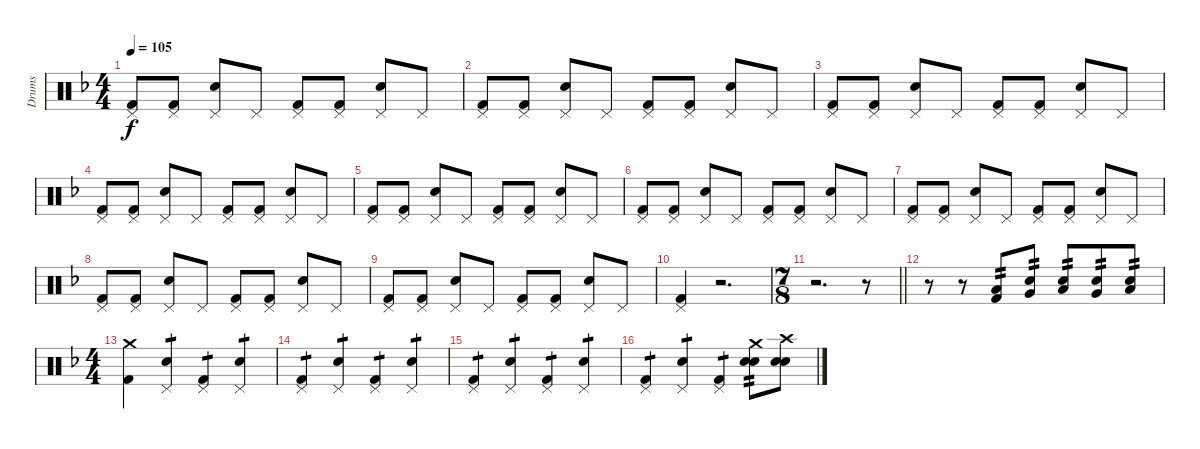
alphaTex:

\track ("Drums" "Drums") {instrument percussion}
\staff {score}
\articulation defaults
\ts (4 4)
\tempo 105
\clef neutral
\ks f
("Kick (hit) 2" "Pedal Hi-Hat (hit)").8{dy f} ("Kick (hit) 2" "Pedal Hi-Hat (hit)").8 ("Snare (hit) 2" "Pedal Hi-Hat (hit)").8 "Pedal Hi-Hat (hit)".8 ("Kick (hit) 2" "Pedal Hi-Hat (hit)").8 ("Kick (hit) 2" "Pedal Hi-Hat (hit)").8 ("Snare (hit) 2" "Pedal Hi-Hat (hit)").8 "Pedal Hi-Hat (hit)".8 |
("Kick (hit) 2" "Pedal Hi-Hat (hit)").8 ("Kick (hit) 2" "Pedal Hi-Hat (hit)").8 ("Snare (hit) 2" "Pedal Hi-Hat (hit)").8 "Pedal Hi-Hat (hit)".8 ("Kick (hit) 2" "Pedal Hi-Hat (hit)").8 ("Kick (hit) 2" "Pedal Hi-Hat (hit)").8 ("Snare (hit) 2" "Pedal Hi-Hat (hit)").8 "Pedal Hi-Hat (hit)".8 |
("Kick (hit) 2" "Pedal Hi-Hat (hit)").8 ("Kick (hit) 2" "Pedal Hi-Hat (hit)").8 ("Snare (hit) 2" "Pedal Hi-Hat (hit)").8 "Pedal Hi-Hat (hit)".8 ("Kick (hit) 2" "Pedal Hi-Hat (hit)").8 ("Kick (hit) 2" "Pedal Hi-Hat (hit)").8 ("Snare (hit) 2" "Pedal Hi-Hat (hit)").8 "Pedal Hi-Hat (hit)".8 |
("Kick (hit) 2" "Pedal Hi-Hat (hit)").8 ("Kick (hit) 2" "Pedal Hi-Hat (hit)").8 ("Snare (hit) 2" "Pedal Hi-Hat (hit)").8 "Pedal Hi-Hat (hit)".8 ("Kick (hit) 2" "Pedal Hi-Hat (hit)").8 ("Kick (hit) 2" "Pedal Hi-Hat (hit)").8 ("Snare (hit) 2" "Pedal Hi-Hat (hit)").8 "Pedal Hi-Hat (hit)".8 |
("Kick (hit) 2" "Pedal Hi-Hat (hit)").8 ("Kick (hit) 2" "Pedal Hi-Hat (hit)").8 ("Snare (hit) 2" "Pedal Hi-Hat (hit)").8 "Pedal Hi-Hat (hit)".8 ("Kick (hit) 2" "Pedal Hi-Hat (hit)").8 ("Kick (hit) 2" "Pedal Hi-Hat (hit)").8 ("Snare (hit) 2" "Pedal Hi-Hat (hit)").8 "Pedal Hi-Hat (hit)".8 |
("Kick (hit) 2" "Pedal Hi-Hat (hit)").8 ("Kick (hit) 2" "Pedal Hi-Hat (hit)").8 ("Snare (hit) 2" "Pedal Hi-Hat (hit)").8 "Pedal Hi-Hat (hit)".8 ("Kick (hit) 2" "Pedal Hi-Hat (hit)").8 ("Kick (hit) 2" "Pedal Hi-Hat (hit)").8 ("Snare (hit) 2" "Pedal Hi-Hat (hit)").8 "Pedal Hi-Hat (hit)".8 |
("Kick (hit) 2" "Pedal Hi-Hat (hit)").8 ("Kick (hit) 2" "Pedal Hi-Hat (hit)").8 ("Snare (hit) 2" "Pedal Hi-Hat (hit)").8 "Pedal Hi-Hat (hit)".8 ("Kick (hit) 2" "Pedal Hi-Hat (hit)").8 ("Kick (hit) 2" "Pedal Hi-Hat (hit)").8 ("Snare (hit) 2" "Pedal Hi-Hat (hit)").8 "Pedal Hi-Hat (hit)".8 |
("Kick (hit) 2" "Pedal Hi-Hat (hit)").8 ("Kick (hit) 2" "Pedal Hi-Hat (hit)").8 ("Snare (hit) 2" "Pedal Hi-Hat (hit)").8 "Pedal Hi-Hat (hit)".8 ("Kick (hit) 2" "Pedal Hi-Hat (hit)").8 ("Kick (hit) 2" "Pedal Hi-Hat (hit)").8 ("Snare (hit) 2" "Pedal Hi-Hat (hit)").8 "Pedal Hi-Hat (hit)".8 |
("Kick (hit) 2" "Pedal Hi-Hat (hit)").8 ("Kick (hit) 2" "Pedal Hi-Hat (hit)").8 ("Snare (hit) 2" "Pedal Hi-Hat (hit)").8 "Pedal Hi-Hat (hit)".8 ("Kick (hit) 2" "Pedal Hi-Hat (hit)").8 ("Kick (hit) 2" "Pedal Hi-Hat (hit)").8 ("Snare (hit) 2" "Pedal Hi-Hat (hit)").8 "Pedal Hi-Hat (hit)".8 |
("Kick (hit) 2" "Pedal Hi-Hat (hit)").4 r.2{d} |
\ts (7 8)
\barLineRight lightlight
r.2{d} r.8 |
r.8 r.8 ("Kick (hit) 2" "Low Tom (hit)").8{tp 2} ("Snare (hit) 2" "Very Low Tom (hit)").8{tp 2} ("Snare (hit) 2" "Low Tom (hit)").8{tp 2} ("Snare (hit) 2" "Very Low Tom (hit)").8{tp 2} ("Snare (hit) 2" "Low Floor Tom (hit)").8{tp 2} |
\ts (4 4)
("Kick (hit) 2" "Crash medium (hit)").4 ("Snare (hit) 2" "Pedal Hi-Hat (hit)").4{tp 1} ("Kick (hit) 2" "Pedal Hi-Hat (hit)").4{tp 1} ("Snare (hit) 2" "Pedal Hi-Hat (hit)").4{tp 1} |
("Kick (hit) 2" "Pedal Hi-Hat (hit)").4{tp 1} ("Snare (hit) 2" "Pedal Hi-Hat (hit)").4{tp 1} ("Kick (hit) 2" "Pedal Hi-Hat (hit)").4{tp 1} ("Snare (hit) 2" "Pedal Hi-Hat (hit)").4{tp 1} |
("Kick (hit) 2" "Pedal Hi-Hat (hit)").4{tp 1} ("Snare (hit) 2" "Pedal Hi-Hat (hit)").4{tp 1} ("Kick (hit) 2" "Pedal Hi-Hat (hit)").4{tp 1} ("Snare (hit) 2" "Pedal Hi-Hat (hit)").4{tp 1} |
("Kick (hit) 2" "Pedal Hi-Hat (hit)").4{tp 1} ("Snare (hit) 2" "Pedal Hi-Hat (hit)").4{tp 1} ("Kick (hit) 2" "Pedal Hi-Hat (hit)").4{tp 1} ("Snare (hit) 2" "Snare (hit) 2" "Crash medium (hit)").8{tp 2} ("Snare (hit) 2" "Snare (hit) 2" "Crash high (hit)").8
